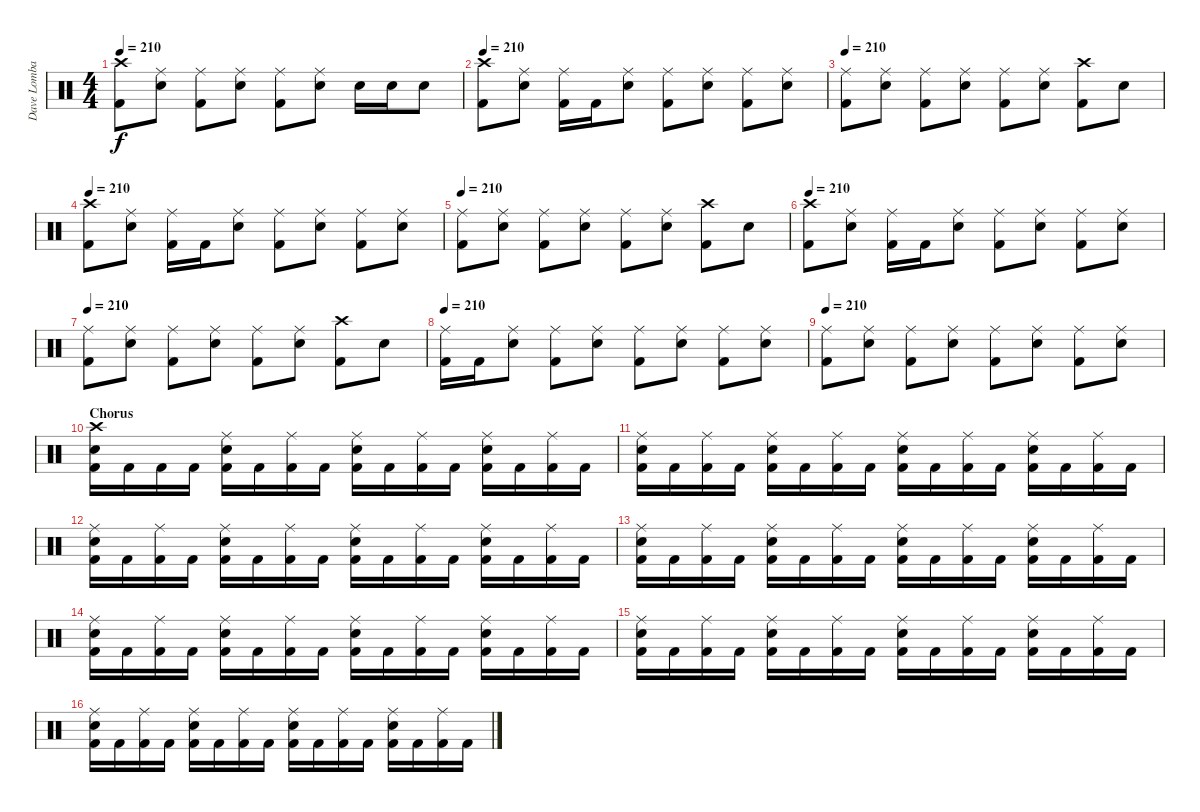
\track ("Dave Lombardo" "Dave Lomba") {instrument percussion}
\staff {score}
\articulation defaults
\ts (4 4)
\tempo 210
\clef neutral
\ks c
("Crash high (hit)" "Kick (hit) 2").8{dy f} ("Ride (middle)" "Snare (hit) 2").8 ("Ride (middle)" "Kick (hit) 2").8 ("Ride (middle)" "Snare (hit) 2").8 ("Ride (middle)" "Kick (hit) 2").8 ("Ride (middle)" "Snare (hit) 2").8 "Snare (hit) 2".16 "Snare (hit) 2".16 "Snare (hit) 2".8 |
\tempo 210
("Crash high (hit)" "Kick (hit) 2").8 ("Ride (middle)" "Snare (hit) 2").8 ("Ride (middle)" "Kick (hit) 2").16 "Kick (hit) 2".16 ("Ride (middle)" "Snare (hit) 2").8 ("Ride (middle)" "Kick (hit) 2").8 ("Ride (middle)" "Snare (hit) 2").8 ("Ride (middle)" "Kick (hit) 2").8 ("Ride (middle)" "Snare (hit) 2").8 |
\tempo 210
("Ride (middle)" "Kick (hit) 2").8 ("Ride (middle)" "Snare (hit) 2").8 ("Ride (middle)" "Kick (hit) 2").8 ("Ride (middle)" "Snare (hit) 2").8 ("Ride (middle)" "Kick (hit) 2").8 ("Ride (middle)" "Snare (hit) 2").8 ("Crash high (hit)" "Kick (hit) 2").8 "Snare (hit) 2".8 |
\tempo 210
("Crash high (hit)" "Kick (hit) 2").8 ("Ride (middle)" "Snare (hit) 2").8 ("Ride (middle)" "Kick (hit) 2").16 "Kick (hit) 2".16 ("Ride (middle)" "Snare (hit) 2").8 ("Ride (middle)" "Kick (hit) 2").8 ("Ride (middle)" "Snare (hit) 2").8 ("Ride (middle)" "Kick (hit) 2").8 ("Ride (middle)" "Snare (hit) 2").8 |
\tempo 210
("Ride (middle)" "Kick (hit) 2").8 ("Ride (middle)" "Snare (hit) 2").8 ("Ride (middle)" "Kick (hit) 2").8 ("Ride (middle)" "Snare (hit) 2").8 ("Ride (middle)" "Kick (hit) 2").8 ("Ride (middle)" "Snare (hit) 2").8 ("Crash high (hit)" "Kick (hit) 2").8 "Snare (hit) 2".8 |
\tempo 210
("Crash high (hit)" "Kick (hit) 2").8 ("Ride (middle)" "Snare (hit) 2").8 ("Ride (middle)" "Kick (hit) 2").16 "Kick (hit) 2".16 ("Ride (middle)" "Snare (hit) 2").8 ("Ride (middle)" "Kick (hit) 2").8 ("Ride (middle)" "Snare (hit) 2").8 ("Ride (middle)" "Kick (hit) 2").8 ("Ride (middle)" "Snare (hit) 2").8 |
\tempo 210
("Ride (middle)" "Kick (hit) 2").8 ("Ride (middle)" "Snare (hit) 2").8 ("Ride (middle)" "Kick (hit) 2").8 ("Ride (middle)" "Snare (hit) 2").8 ("Ride (middle)" "Kick (hit) 2").8 ("Ride (middle)" "Snare (hit) 2").8 ("Crash high (hit)" "Kick (hit) 2").8 "Snare (hit) 2".8 |
\tempo 210
("Ride (middle)" "Kick (hit) 2").16 "Kick (hit) 2".16 ("Ride (middle)" "Snare (hit) 2").8 ("Ride (middle)" "Kick (hit) 2").8 ("Ride (middle)" "Snare (hit) 2").8 ("Ride (middle)" "Kick (hit) 2").8 ("Ride (middle)" "Snare (hit) 2").8 ("Ride (middle)" "Kick (hit) 2").8 ("Ride (middle)" "Snare (hit) 2").8 |
\tempo 210
("Ride (middle)" "Kick (hit) 2").8 ("Ride (middle)" "Snare (hit) 2").8 ("Ride (middle)" "Kick (hit) 2").8 ("Ride (middle)" "Snare (hit) 2").8 ("Ride (middle)" "Kick (hit) 2").8 ("Ride (middle)" "Snare (hit) 2").8 ("Ride (middle)" "Kick (hit) 2").8 ("Ride (middle)" "Snare (hit) 2").8 |
\section ("" "Chorus")
("Crash high (hit)" "Snare (hit) 2" "Kick (hit) 2").16 "Kick (hit) 2".16 "Kick (hit) 2".16 "Kick (hit) 2".16 ("Ride (middle)" "Snare (hit) 2" "Kick (hit) 2").16 "Kick (hit) 2".16 ("Ride (middle)" "Kick (hit) 2").16 "Kick (hit) 2".16 ("Ride (middle)" "Snare (hit) 2" "Kick (hit) 2").16 "Kick (hit) 2".16 ("Ride (middle)" "Kick (hit) 2").16 "Kick (hit) 2".16 ("Ride (middle)" "Snare (hit) 2" "Kick (hit) 2").16 "Kick (hit) 2".16 ("Ride (middle)" "Kick (hit) 2").16 "Kick (hit) 2".16 |
("Ride (middle)" "Snare (hit) 2" "Kick (hit) 2").16 "Kick (hit) 2".16 ("Ride (middle)" "Kick (hit) 2").16 "Kick (hit) 2".16 ("Ride (middle)" "Snare (hit) 2" "Kick (hit) 2").16 "Kick (hit) 2".16 ("Ride (middle)" "Kick (hit) 2").16 "Kick (hit) 2".16 ("Ride (middle)" "Snare (hit) 2" "Kick (hit) 2").16 "Kick (hit) 2".16 ("Ride (middle)" "Kick (hit) 2").16 "Kick (hit) 2".16 ("Ride (middle)" "Snare (hit) 2" "Kick (hit) 2").16 "Kick (hit) 2".16 ("Ride (middle)" "Kick (hit) 2").16 "Kick (hit) 2".16 |
("Ride (middle)" "Snare (hit) 2" "Kick (hit) 2").16 "Kick (hit) 2".16 ("Ride (middle)" "Kick (hit) 2").16 "Kick (hit) 2".16 ("Ride (middle)" "Snare (hit) 2" "Kick (hit) 2").16 "Kick (hit) 2".16 ("Ride (middle)" "Kick (hit) 2").16 "Kick (hit) 2".16 ("Ride (middle)" "Snare (hit) 2" "Kick (hit) 2").16 "Kick (hit) 2".16 ("Ride (middle)" "Kick (hit) 2").16 "Kick (hit) 2".16 ("Ride (middle)" "Snare (hit) 2" "Kick (hit) 2").16 "Kick (hit) 2".16 ("Ride (middle)" "Kick (hit) 2").16 "Kick (hit) 2".16 |
("Ride (middle)" "Snare (hit) 2" "Kick (hit) 2").16 "Kick (hit) 2".16 ("Ride (middle)" "Kick (hit) 2").16 "Kick (hit) 2".16 ("Ride (middle)" "Snare (hit) 2" "Kick (hit) 2").16 "Kick (hit) 2".16 ("Ride (middle)" "Kick (hit) 2").16 "Kick (hit) 2".16 ("Ride (middle)" "Snare (hit) 2" "Kick (hit) 2").16 "Kick (hit) 2".16 ("Ride (middle)" "Kick (hit) 2").16 "Kick (hit) 2".16 ("Ride (middle)" "Snare (hit) 2" "Kick (hit) 2").16 "Kick (hit) 2".16 ("Ride (middle)" "Kick (hit) 2").16 "Kick (hit) 2".16 |
("Ride (middle)" "Snare (hit) 2" "Kick (hit) 2").16 "Kick (hit) 2".16 ("Ride (middle)" "Kick (hit) 2").16 "Kick (hit) 2".16 ("Ride (middle)" "Snare (hit) 2" "Kick (hit) 2").16 "Kick (hit) 2".16 ("Ride (middle)" "Kick (hit) 2").16 "Kick (hit) 2".16 ("Ride (middle)" "Snare (hit) 2" "Kick (hit) 2").16 "Kick (hit) 2".16 ("Ride (middle)" "Kick (hit) 2").16 "Kick (hit) 2".16 ("Ride (middle)" "Snare (hit) 2" "Kick (hit) 2").16 "Kick (hit) 2".16 ("Ride (middle)" "Kick (hit) 2").16 "Kick (hit) 2".16 |
("Ride (middle)" "Snare (hit) 2" "Kick (hit) 2").16 "Kick (hit) 2".16 ("Ride (middle)" "Kick (hit) 2").16 "Kick (hit) 2".16 ("Ride (middle)" "Snare (hit) 2" "Kick (hit) 2").16 "Kick (hit) 2".16 ("Ride (middle)" "Kick (hit) 2").16 "Kick (hit) 2".16 ("Ride (middle)" "Snare (hit) 2" "Kick (hit) 2").16 "Kick (hit) 2".16 ("Ride (middle)" "Kick (hit) 2").16 "Kick (hit) 2".16 ("Ride (middle)" "Snare (hit) 2" "Kick (hit) 2").16 "Kick (hit) 2".16 ("Ride (middle)" "Kick (hit) 2").16 "Kick (hit) 2".16 |
("Ride (middle)" "Snare (hit) 2" "Kick (hit) 2").16 "Kick (hit) 2".16 ("Ride (middle)" "Kick (hit) 2").16 "Kick (hit) 2".16 ("Ride (middle)" "Snare (hit) 2" "Kick (hit) 2").16 "Kick (hit) 2".16 ("Ride (middle)" "Kick (hit) 2").16 "Kick (hit) 2".16 ("Ride (middle)" "Snare (hit) 2" "Kick (hit) 2").16 "Kick (hit) 2".16 ("Ride (middle)" "Kick (hit) 2").16 "Kick (hit) 2".16 ("Ride (middle)" "Snare (hit) 2" "Kick (hit) 2").16 "Kick (hit) 2".16 ("Ride (middle)" "Kick (hit) 2").16 "Kick (hit) 2".16
